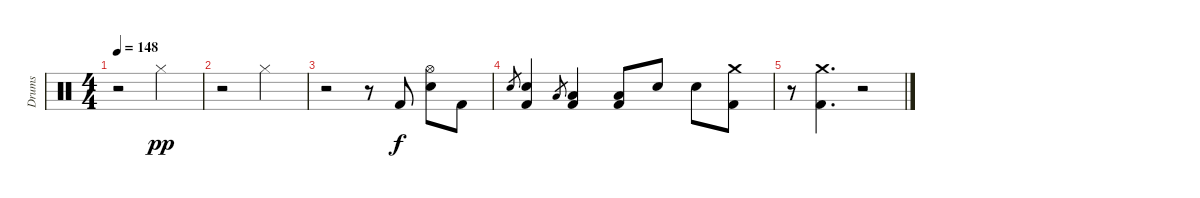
\track ("Drums" "Drums") {instrument percussion}
\staff {score}
\articulation defaults
\ts (4 4)
\tempo 148
\clef neutral
\ks c
r.2{dy pp} "Hi-Hat (closed)".2 |
r.2 "Hi-Hat (closed)".2 |
r.2 r.8 "Kick (hit) 2".8{dy f} ("Snare (hit) 2" "Hi-Hat (open)").8 "Kick (hit) 2".8 |
"Snare (hit) 2".8{gr} ("Snare (hit) 2" "Kick (hit) 2").4 "Low Tom (hit)".8{gr} ("Low Tom (hit)" "Kick (hit) 2").4 ("Low Floor Tom (hit)" "Kick (hit) 2").8 "Snare (hit) 2".8 "Snare (hit) 2".8 ("Kick (hit) 2" "Crash medium (hit)").8 |
r.8 ("Kick (hit) 2" "Crash medium (hit)").4{d} r.2
